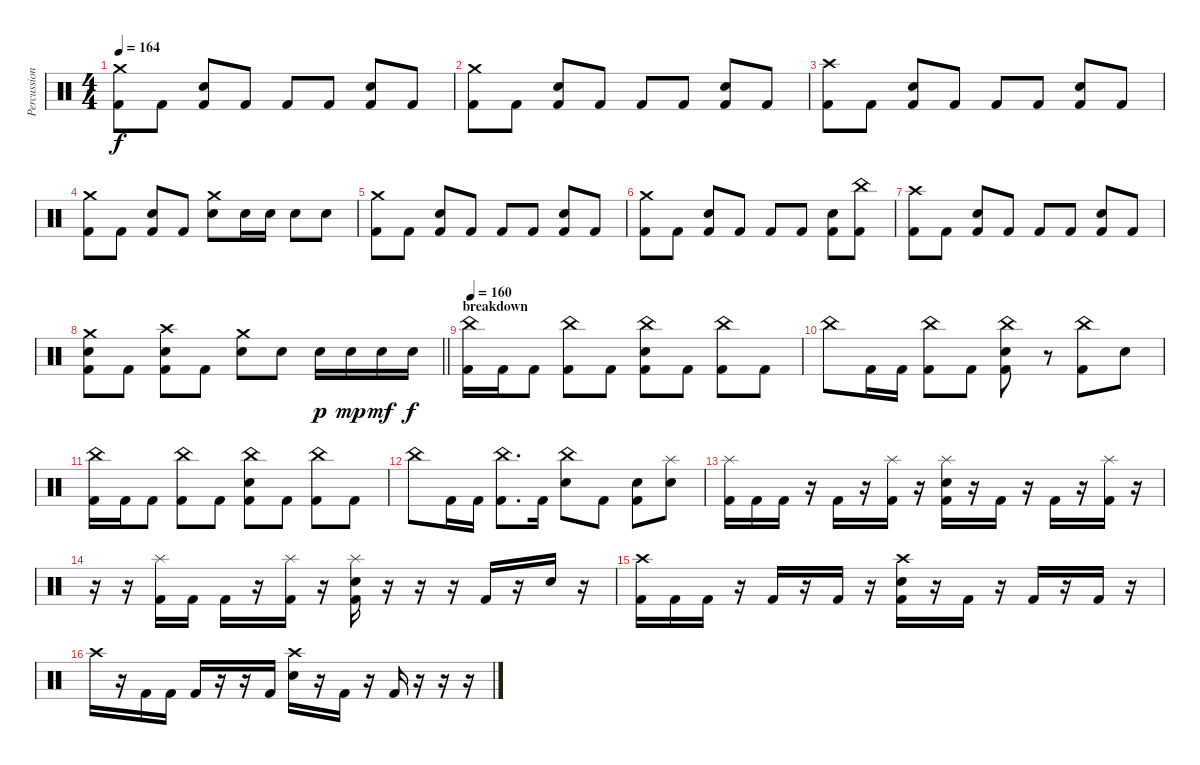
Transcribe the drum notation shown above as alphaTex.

\track ("Percussions" "Percussion") {instrument percussion}
\staff {score}
\articulation defaults
\ts (4 4)
\tempo 164
\clef neutral
\ks c
("Crash medium (hit)" "Kick (hit) 2").8{dy f} "Kick (hit) 2".8 ("Electric Snare (hit)" "Kick (hit) 2").8 "Kick (hit) 2".8 "Kick (hit) 2".8 "Kick (hit) 2".8 ("Electric Snare (hit)" "Kick (hit) 2").8 "Kick (hit) 2".8 |
("Crash medium (hit)" "Kick (hit) 2").8 "Kick (hit) 2".8 ("Electric Snare (hit)" "Kick (hit) 2").8 "Kick (hit) 2".8 "Kick (hit) 2".8 "Kick (hit) 2".8 ("Electric Snare (hit)" "Kick (hit) 2").8 "Kick (hit) 2".8 |
("Crash high (hit)" "Kick (hit) 2").8 "Kick (hit) 2".8 ("Electric Snare (hit)" "Kick (hit) 2").8 "Kick (hit) 2".8 "Kick (hit) 2".8 "Kick (hit) 2".8 ("Electric Snare (hit)" "Kick (hit) 2").8 "Kick (hit) 2".8 |
("Crash medium (hit)" "Kick (hit) 2").8 "Kick (hit) 2".8 ("Electric Snare (hit)" "Kick (hit) 2").8 "Kick (hit) 2".8 ("Crash medium (hit)" "Electric Snare (hit)").8 "Electric Snare (hit)".16 "Electric Snare (hit)".16 "Electric Snare (hit)".8 "Electric Snare (hit)".8 |
("Crash medium (hit)" "Kick (hit) 2").8 "Kick (hit) 2".8 ("Electric Snare (hit)" "Kick (hit) 2").8 "Kick (hit) 2".8 "Kick (hit) 2".8 "Kick (hit) 2".8 ("Electric Snare (hit)" "Kick (hit) 2").8 "Kick (hit) 2".8 |
("Crash medium (hit)" "Kick (hit) 2").8 "Kick (hit) 2".8 ("Electric Snare (hit)" "Kick (hit) 2").8 "Kick (hit) 2".8 "Kick (hit) 2".8 "Kick (hit) 2".8 ("Electric Snare (hit)" "Kick (hit) 2").8 ("China (hit)" "Kick (hit) 2").8 |
("Crash high (hit)" "Kick (hit) 2").8 "Kick (hit) 2".8 ("Electric Snare (hit)" "Kick (hit) 2").8 "Kick (hit) 2".8 "Kick (hit) 2".8 "Kick (hit) 2".8 ("Electric Snare (hit)" "Kick (hit) 2").8 "Kick (hit) 2".8 |
\barLineRight lightlight
("Crash medium (hit)" "Electric Snare (hit)" "Kick (hit) 2").8 "Kick (hit) 2".8 ("Crash high (hit)" "Electric Snare (hit)" "Kick (hit) 2").8 "Kick (hit) 2".8 ("Crash medium (hit)" "Electric Snare (hit)").8 "Electric Snare (hit)".8 "Electric Snare (hit)".16{dy p} "Electric Snare (hit)".16{dy mp} "Electric Snare (hit)".16{dy mf} "Electric Snare (hit)".16{dy f} |
\section ("" "breakdown")
\tempo 160
("China (hit)" "Kick (hit) 2").16 "Kick (hit) 2".16 "Kick (hit) 2".8 ("China (hit)" "Kick (hit) 2").8 "Kick (hit) 2".8 ("China (hit)" "Electric Snare (hit)" "Kick (hit) 2").8 "Kick (hit) 2".8 ("China (hit)" "Kick (hit) 2").8 "Kick (hit) 2".8 |
"China (hit)".8 "Kick (hit) 2".16 "Kick (hit) 2".16 ("China (hit)" "Kick (hit) 2").8 "Kick (hit) 2".8 ("China (hit)" "Electric Snare (hit)" "Kick (hit) 2").8 r.8 ("China (hit)" "Kick (hit) 2").8 "Electric Snare (hit)".8 |
("China (hit)" "Kick (hit) 2").16 "Kick (hit) 2".16 "Kick (hit) 2".8 ("China (hit)" "Kick (hit) 2").8 "Kick (hit) 2".8 ("Electric Snare (hit)" "China (hit)" "Kick (hit) 2").8 "Kick (hit) 2".8 ("China (hit)" "Kick (hit) 2").8 "Kick (hit) 2".8 |
"China (hit)".8 "Kick (hit) 2".16 "Kick (hit) 2".16 ("China (hit)" "Kick (hit) 2").8{d} "Kick (hit) 2".16 ("China (hit)" "Electric Snare (hit)").8 "Kick (hit) 2".8 ("Electric Snare (hit)" "Kick (hit) 2").8 ("Electric Snare (hit)" "Splash (hit)").8 |
("Splash (hit)" "Kick (hit) 2").16 "Kick (hit) 2".16 "Kick (hit) 2".16 r.16 "Kick (hit) 2".16 r.16 ("Splash (hit)" "Kick (hit) 2").16 r.16 ("Splash (hit)" "Electric Snare (hit)" "Kick (hit) 2").16 r.16 "Kick (hit) 2".16 r.16 "Kick (hit) 2".16 r.16 ("Splash (hit)" "Kick (hit) 2").16 r.16 |
r.16 r.16 ("Splash (hit)" "Kick (hit) 2").16 "Kick (hit) 2".16 "Kick (hit) 2".16 r.16 ("Splash (hit)" "Kick (hit) 2").16 r.16 ("Splash (hit)" "Electric Snare (hit)" "Kick (hit) 2").16 r.16 r.16 r.16 "Kick (hit) 2".16 r.16 "Electric Snare (hit)".16 r.16 |
("Crash high (hit)" "Kick (hit) 2").16 "Kick (hit) 2".16 "Kick (hit) 2".16 r.16 "Kick (hit) 2".16 r.16 "Kick (hit) 2".16 r.16 ("Crash high (hit)" "Electric Snare (hit)" "Kick (hit) 2").16 r.16 "Kick (hit) 2".16 r.16 "Kick (hit) 2".16 r.16 "Kick (hit) 2".16 r.16 |
"Crash high (hit)".16 r.16 "Kick (hit) 2".16 "Kick (hit) 2".16 "Kick (hit) 2".16 r.16 r.16 "Kick (hit) 2".16 ("Crash high (hit)" "Electric Snare (hit)").16 r.16 "Kick (hit) 2".16 r.16 "Kick (hit) 2".16 r.16 r.16 r.16
